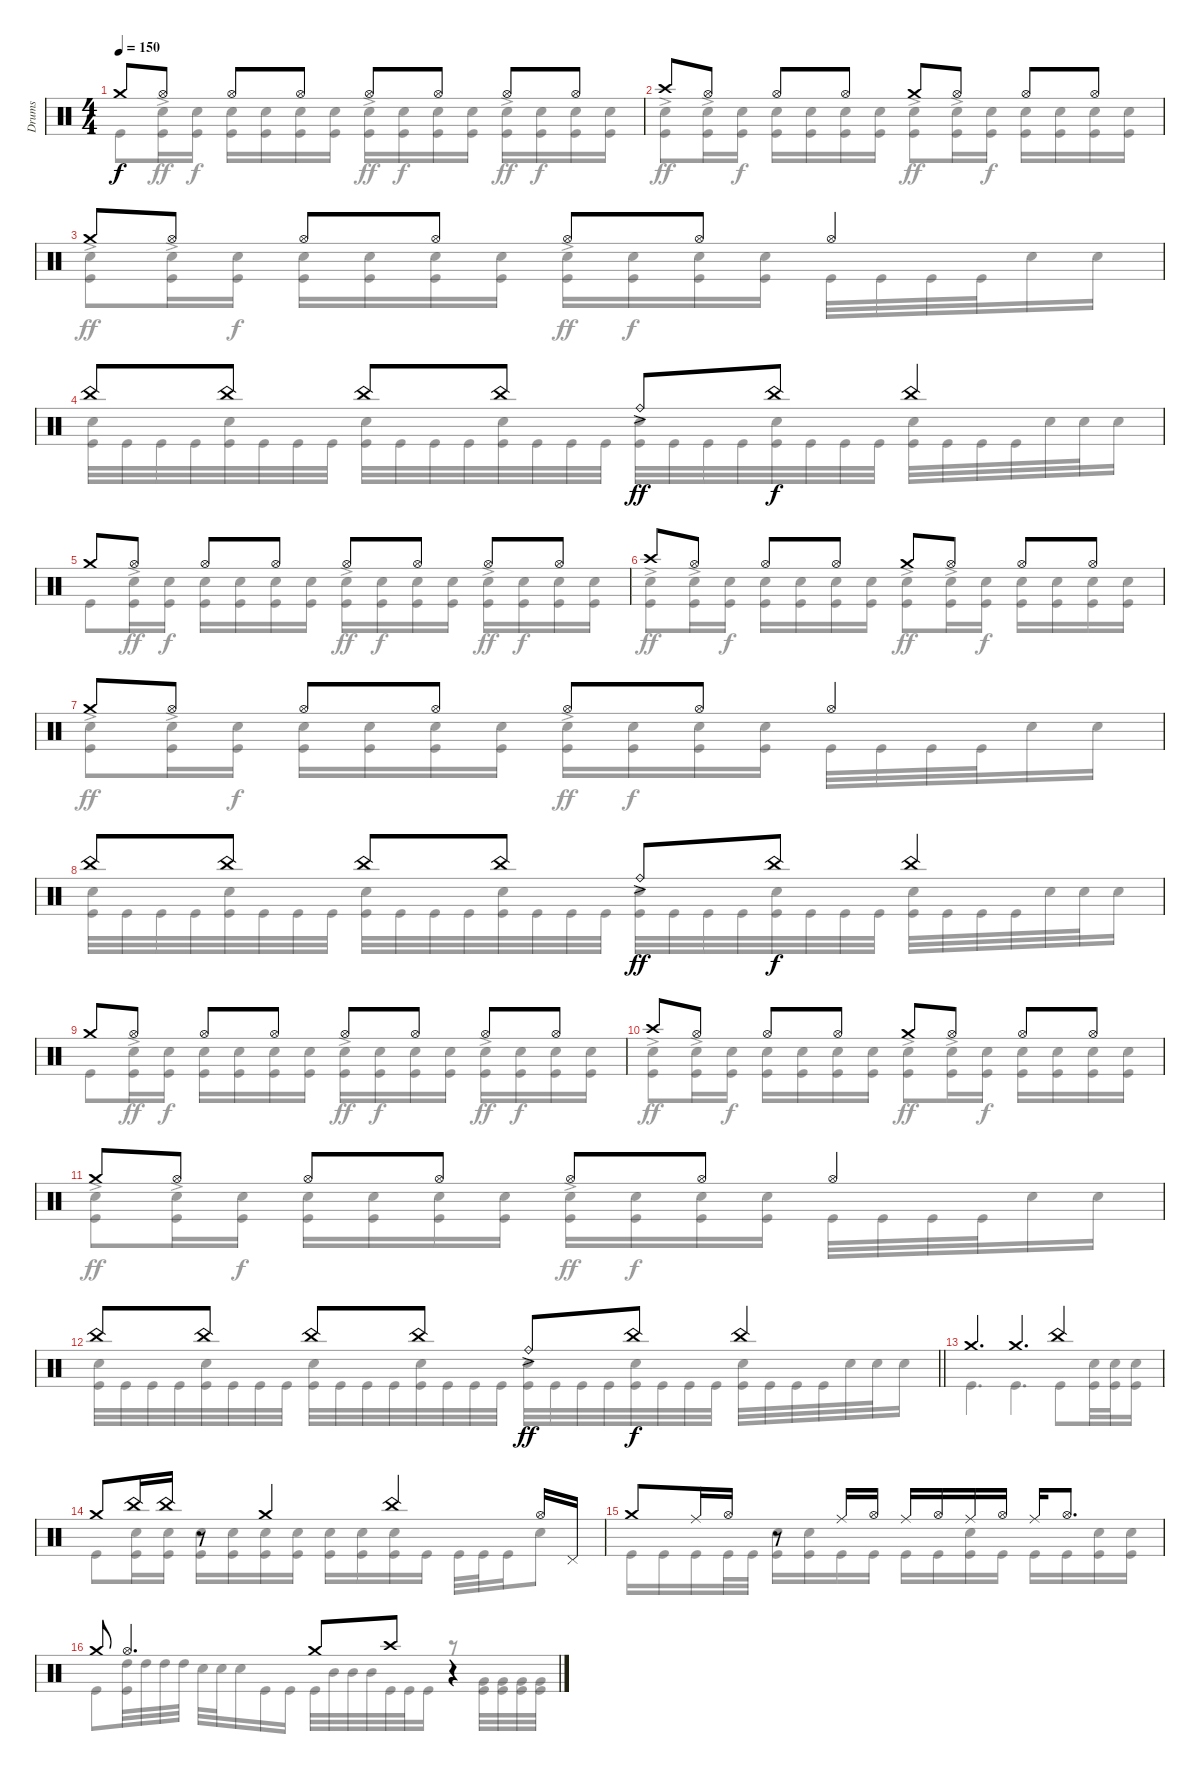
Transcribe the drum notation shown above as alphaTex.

\track ("Drums" "Drums") {instrument percussion}
\staff {score}
\articulation defaults
\voice
\ts (4 4)
\tempo 150
\clef neutral
\ks c "Crash medium (hit)".8{dy f} "Hi-Hat (open)".8 "Hi-Hat (open)".8 "Hi-Hat (open)".8 "Hi-Hat (open)".8 "Hi-Hat (open)".8 "Hi-Hat (open)".8 "Hi-Hat (open)".8
|
"Crash high (hit)".8 "Hi-Hat (open)".8 "Hi-Hat (open)".8 "Hi-Hat (open)".8 "Crash medium (hit)".8 "Hi-Hat (open)".8 "Hi-Hat (open)".8 "Hi-Hat (open)".8 |
"Crash medium (hit)".8 "Hi-Hat (open)".8 "Hi-Hat (open)".8 "Hi-Hat (open)".8 "Hi-Hat (open)".8 "Hi-Hat (open)".8 "Hi-Hat (open)".4 |
"China (hit)".8 "China (hit)".8 "China (hit)".8 "China (hit)".8 "Ride (bell)"{ac}.8{dy ff} "China (hit)".8{dy f} "China (hit)".4 |
"Crash medium (hit)".8 "Hi-Hat (open)".8 "Hi-Hat (open)".8 "Hi-Hat (open)".8 "Hi-Hat (open)".8 "Hi-Hat (open)".8 "Hi-Hat (open)".8 "Hi-Hat (open)".8 |
"Crash high (hit)".8 "Hi-Hat (open)".8 "Hi-Hat (open)".8 "Hi-Hat (open)".8 "Crash medium (hit)".8 "Hi-Hat (open)".8 "Hi-Hat (open)".8 "Hi-Hat (open)".8 |
"Crash medium (hit)".8 "Hi-Hat (open)".8 "Hi-Hat (open)".8 "Hi-Hat (open)".8 "Hi-Hat (open)".8 "Hi-Hat (open)".8 "Hi-Hat (open)".4 |
"China (hit)".8 "China (hit)".8 "China (hit)".8 "China (hit)".8 "Ride (bell)"{ac}.8{dy ff} "China (hit)".8{dy f} "China (hit)".4 |
"Crash medium (hit)".8 "Hi-Hat (open)".8 "Hi-Hat (open)".8 "Hi-Hat (open)".8 "Hi-Hat (open)".8 "Hi-Hat (open)".8 "Hi-Hat (open)".8 "Hi-Hat (open)".8 |
"Crash high (hit)".8 "Hi-Hat (open)".8 "Hi-Hat (open)".8 "Hi-Hat (open)".8 "Crash medium (hit)".8 "Hi-Hat (open)".8 "Hi-Hat (open)".8 "Hi-Hat (open)".8 |
"Crash medium (hit)".8 "Hi-Hat (open)".8 "Hi-Hat (open)".8 "Hi-Hat (open)".8 "Hi-Hat (open)".8 "Hi-Hat (open)".8 "Hi-Hat (open)".4 |
\barLineRight lightlight "China (hit)".8 "China (hit)".8 "China (hit)".8 "China (hit)".8 "Ride (bell)"{ac}.8{dy ff} "China (hit)".8{dy f} "China (hit)".4
|
\section ("" "")
"Crash medium (hit)".4{d} "Crash medium (hit)".4{d} "China (hit)".4 |
"Crash medium (hit)".8 "China (hit)".16 "China (hit)".16 r.8 "Crash medium (hit)".4 "China (hit)".4 "Hi-Hat (open)".16 "Pedal Hi-Hat (hit)".16 |
"Crash medium (hit)".8 "Ride (middle)".16 "Hi-Hat (open)".16 r.8 "Ride (middle)".16 "Hi-Hat (open)".16 "Ride (middle)".16 "Hi-Hat (open)".16 "Ride (middle)".16 "Hi-Hat (open)".16 "Ride (middle)".16 "Hi-Hat (open)".8{d} |
"Crash medium (hit)".8 "Hi-Hat (open)".4{d} "Crash medium (hit)".8 "Crash high (hit)".8 r.4
\voice
\clef neutral
\ottava regular
\simile none
\ks c "Kick (hit)".8{dy f}
("Snare (hit) 2"{ac} "Kick (hit)").16{dy ff} ("Snare (hit) 2" "Kick (hit)").16{dy f} ("Snare (hit) 2" "Kick (hit)").16 ("Snare (hit) 2" "Kick (hit)").16 ("Snare (hit) 2" "Kick (hit)").16 ("Snare (hit) 2" "Kick (hit)").16 ("Snare (hit) 2"{ac} "Kick (hit)").16{dy ff} ("Snare (hit) 2" "Kick (hit)").16{dy f} ("Snare (hit) 2" "Kick (hit)").16 ("Snare (hit) 2" "Kick (hit)").16 ("Snare (hit) 2"{ac} "Kick (hit)").16{dy ff} ("Snare (hit) 2" "Kick (hit)").16{dy f} ("Snare (hit) 2" "Kick (hit)").16 ("Snare (hit) 2" "Kick (hit)").16 |
("Snare (hit) 2"{ac} "Kick (hit)").8{dy ff} ("Snare (hit) 2"{ac} "Kick (hit)").16 ("Snare (hit) 2" "Kick (hit)").16{dy f} ("Snare (hit) 2" "Kick (hit)").16 ("Snare (hit) 2" "Kick (hit)").16 ("Snare (hit) 2" "Kick (hit)").16 ("Snare (hit) 2" "Kick (hit)").16 ("Snare (hit) 2"{ac} "Kick (hit)").8{dy ff} ("Snare (hit) 2"{ac} "Kick (hit)").16 ("Snare (hit) 2" "Kick (hit)").16{dy f} ("Snare (hit) 2" "Kick (hit)").16 ("Snare (hit) 2" "Kick (hit)").16 ("Snare (hit) 2" "Kick (hit)").16 ("Snare (hit) 2" "Kick (hit)").16 |
("Snare (hit) 2"{ac} "Kick (hit)").8{dy ff} ("Snare (hit) 2"{ac} "Kick (hit)").16 ("Snare (hit) 2" "Kick (hit)").16{dy f} ("Snare (hit) 2" "Kick (hit)").16 ("Snare (hit) 2" "Kick (hit)").16 ("Snare (hit) 2" "Kick (hit)").16 ("Snare (hit) 2" "Kick (hit)").16 ("Snare (hit) 2"{ac} "Kick (hit)").16{dy ff} ("Snare (hit) 2" "Kick (hit)").16{dy f} ("Snare (hit) 2" "Kick (hit)").16 ("Snare (hit) 2" "Kick (hit)").16 "Kick (hit)".32 "Kick (hit)".32 "Kick (hit)".32 "Kick (hit)".32 "Snare (hit) 2".16 "Snare (hit) 2".16 |
("Snare (hit) 2" "Kick (hit)").32 "Kick (hit)".32 "Kick (hit)".32 "Kick (hit)".32 ("Snare (hit) 2" "Kick (hit)").32 "Kick (hit)".32 "Kick (hit)".32 "Kick (hit)".32 ("Snare (hit) 2" "Kick (hit)").32 "Kick (hit)".32 "Kick (hit)".32 "Kick (hit)".32 ("Snare (hit) 2" "Kick (hit)").32 "Kick (hit)".32 "Kick (hit)".32 "Kick (hit)".32 ("Snare (hit) 2" "Kick (hit)").32 "Kick (hit)".32 "Kick (hit)".32 "Kick (hit)".32 ("Snare (hit) 2" "Kick (hit)").32 "Kick (hit)".32 "Kick (hit)".32 "Kick (hit)".32 ("Snare (hit) 2" "Kick (hit)").32 "Kick (hit)".32 "Kick (hit)".32 "Kick (hit)".32 "Snare (hit) 2".32 "Snare (hit) 2".32 "Snare (hit) 2".16 |
"Kick (hit)".8 ("Snare (hit) 2"{ac} "Kick (hit)").16{dy ff} ("Snare (hit) 2" "Kick (hit)").16{dy f} ("Snare (hit) 2" "Kick (hit)").16 ("Snare (hit) 2" "Kick (hit)").16 ("Snare (hit) 2" "Kick (hit)").16 ("Snare (hit) 2" "Kick (hit)").16 ("Snare (hit) 2"{ac} "Kick (hit)").16{dy ff} ("Snare (hit) 2" "Kick (hit)").16{dy f} ("Snare (hit) 2" "Kick (hit)").16 ("Snare (hit) 2" "Kick (hit)").16 ("Snare (hit) 2"{ac} "Kick (hit)").16{dy ff} ("Snare (hit) 2" "Kick (hit)").16{dy f} ("Snare (hit) 2" "Kick (hit)").16 ("Snare (hit) 2" "Kick (hit)").16 |
("Snare (hit) 2"{ac} "Kick (hit)").8{dy ff} ("Snare (hit) 2"{ac} "Kick (hit)").16 ("Snare (hit) 2" "Kick (hit)").16{dy f} ("Snare (hit) 2" "Kick (hit)").16 ("Snare (hit) 2" "Kick (hit)").16 ("Snare (hit) 2" "Kick (hit)").16 ("Snare (hit) 2" "Kick (hit)").16 ("Snare (hit) 2"{ac} "Kick (hit)").8{dy ff} ("Snare (hit) 2"{ac} "Kick (hit)").16 ("Snare (hit) 2" "Kick (hit)").16{dy f} ("Snare (hit) 2" "Kick (hit)").16 ("Snare (hit) 2" "Kick (hit)").16 ("Snare (hit) 2" "Kick (hit)").16 ("Snare (hit) 2" "Kick (hit)").16 |
("Snare (hit) 2"{ac} "Kick (hit)").8{dy ff} ("Snare (hit) 2"{ac} "Kick (hit)").16 ("Snare (hit) 2" "Kick (hit)").16{dy f} ("Snare (hit) 2" "Kick (hit)").16 ("Snare (hit) 2" "Kick (hit)").16 ("Snare (hit) 2" "Kick (hit)").16 ("Snare (hit) 2" "Kick (hit)").16 ("Snare (hit) 2"{ac} "Kick (hit)").16{dy ff} ("Snare (hit) 2" "Kick (hit)").16{dy f} ("Snare (hit) 2" "Kick (hit)").16 ("Snare (hit) 2" "Kick (hit)").16 "Kick (hit)".32 "Kick (hit)".32 "Kick (hit)".32 "Kick (hit)".32 "Snare (hit) 2".16 "Snare (hit) 2".16 |
("Snare (hit) 2" "Kick (hit)").32 "Kick (hit)".32 "Kick (hit)".32 "Kick (hit)".32 ("Snare (hit) 2" "Kick (hit)").32 "Kick (hit)".32 "Kick (hit)".32 "Kick (hit)".32 ("Snare (hit) 2" "Kick (hit)").32 "Kick (hit)".32 "Kick (hit)".32 "Kick (hit)".32 ("Snare (hit) 2" "Kick (hit)").32 "Kick (hit)".32 "Kick (hit)".32 "Kick (hit)".32 ("Snare (hit) 2" "Kick (hit)").32 "Kick (hit)".32 "Kick (hit)".32 "Kick (hit)".32 ("Snare (hit) 2" "Kick (hit)").32 "Kick (hit)".32 "Kick (hit)".32 "Kick (hit)".32 ("Snare (hit) 2" "Kick (hit)").32 "Kick (hit)".32 "Kick (hit)".32 "Kick (hit)".32 "Snare (hit) 2".32 "Snare (hit) 2".32 "Snare (hit) 2".16 |
"Kick (hit)".8 ("Snare (hit) 2"{ac} "Kick (hit)").16{dy ff} ("Snare (hit) 2" "Kick (hit)").16{dy f} ("Snare (hit) 2" "Kick (hit)").16 ("Snare (hit) 2" "Kick (hit)").16 ("Snare (hit) 2" "Kick (hit)").16 ("Snare (hit) 2" "Kick (hit)").16 ("Snare (hit) 2"{ac} "Kick (hit)").16{dy ff} ("Snare (hit) 2" "Kick (hit)").16{dy f} ("Snare (hit) 2" "Kick (hit)").16 ("Snare (hit) 2" "Kick (hit)").16 ("Snare (hit) 2"{ac} "Kick (hit)").16{dy ff} ("Snare (hit) 2" "Kick (hit)").16{dy f} ("Snare (hit) 2" "Kick (hit)").16 ("Snare (hit) 2" "Kick (hit)").16 |
("Snare (hit) 2"{ac} "Kick (hit)").8{dy ff} ("Snare (hit) 2"{ac} "Kick (hit)").16 ("Snare (hit) 2" "Kick (hit)").16{dy f} ("Snare (hit) 2" "Kick (hit)").16 ("Snare (hit) 2" "Kick (hit)").16 ("Snare (hit) 2" "Kick (hit)").16 ("Snare (hit) 2" "Kick (hit)").16 ("Snare (hit) 2"{ac} "Kick (hit)").8{dy ff} ("Snare (hit) 2"{ac} "Kick (hit)").16 ("Snare (hit) 2" "Kick (hit)").16{dy f} ("Snare (hit) 2" "Kick (hit)").16 ("Snare (hit) 2" "Kick (hit)").16 ("Snare (hit) 2" "Kick (hit)").16 ("Snare (hit) 2" "Kick (hit)").16 |
("Snare (hit) 2"{ac} "Kick (hit)").8{dy ff} ("Snare (hit) 2"{ac} "Kick (hit)").16 ("Snare (hit) 2" "Kick (hit)").16{dy f} ("Snare (hit) 2" "Kick (hit)").16 ("Snare (hit) 2" "Kick (hit)").16 ("Snare (hit) 2" "Kick (hit)").16 ("Snare (hit) 2" "Kick (hit)").16 ("Snare (hit) 2"{ac} "Kick (hit)").16{dy ff} ("Snare (hit) 2" "Kick (hit)").16{dy f} ("Snare (hit) 2" "Kick (hit)").16 ("Snare (hit) 2" "Kick (hit)").16 "Kick (hit)".32 "Kick (hit)".32 "Kick (hit)".32 "Kick (hit)".32 "Snare (hit) 2".16 "Snare (hit) 2".16 |
\barLineRight lightlight
("Snare (hit) 2" "Kick (hit)").32 "Kick (hit)".32 "Kick (hit)".32 "Kick (hit)".32 ("Snare (hit) 2" "Kick (hit)").32 "Kick (hit)".32 "Kick (hit)".32 "Kick (hit)".32 ("Snare (hit) 2" "Kick (hit)").32 "Kick (hit)".32 "Kick (hit)".32 "Kick (hit)".32 ("Snare (hit) 2" "Kick (hit)").32 "Kick (hit)".32 "Kick (hit)".32 "Kick (hit)".32 ("Snare (hit) 2" "Kick (hit)").32 "Kick (hit)".32 "Kick (hit)".32 "Kick (hit)".32 ("Snare (hit) 2" "Kick (hit)").32 "Kick (hit)".32 "Kick (hit)".32 "Kick (hit)".32 ("Snare (hit) 2" "Kick (hit)").32 "Kick (hit)".32 "Kick (hit)".32 "Kick (hit)".32 "Snare (hit) 2".32 "Snare (hit) 2".32 "Snare (hit) 2".16 |
"Kick (hit)".4{d} "Kick (hit)".4{d} "Kick (hit)".8 ("Snare (hit) 2" "Kick (hit)").32 ("Snare (hit) 2" "Kick (hit)").32 ("Snare (hit) 2" "Kick (hit)").16 |
"Kick (hit)".8 ("Snare (hit) 2" "Kick (hit)").16 ("Snare (hit) 2" "Kick (hit)").16 ("Snare (hit) 2" "Kick (hit)").16 ("Snare (hit) 2" "Kick (hit)").16 ("Snare (hit) 2" "Kick (hit)").16 ("Snare (hit) 2" "Kick (hit)").16 ("Snare (hit) 2" "Kick (hit)").16 ("Snare (hit) 2" "Kick (hit)").16 ("Snare (hit) 2" "Kick (hit)").16 "Kick (hit)".16 "Kick (hit)".32 "Kick (hit)".32 "Kick (hit)".16 "Snare (hit) 2".8 |
"Kick (hit)".16 "Kick (hit)".16 "Kick (hit)".16 "Kick (hit)".32 "Kick (hit)".32 ("Snare (hit) 2" "Kick (hit)").16 ("Snare (hit) 2" "Kick (hit)").16 "Kick (hit)".16 "Kick (hit)".16 "Kick (hit)".16 "Kick (hit)".16 ("Snare (hit) 2" "Kick (hit)").16 "Kick (hit)".16 "Kick (hit)".16 "Kick (hit)".16 ("Snare (hit) 2" "Kick (hit)").16 ("Snare (hit) 2" "Kick (hit)").16 |
"Kick (hit)".8 ("High Tom (hit)" "Kick (hit)").32 "High Tom (hit)".32 "High Tom (hit)".32 "High Tom (hit)".32 "Snare (hit) 2".32 "Snare (hit) 2".32 "Snare (hit) 2".16 "Kick (hit)".16 "Kick (hit)".16 "Kick (hit)".32 "Mid Tom (hit)".32 "Mid Tom (hit)".32 "Mid Tom (hit)".32 "Kick (hit)".32 "Kick (hit)".32 "Kick (hit)".16 r.8 ("Very Low Tom (hit)" "Kick (hit)").32 ("Very Low Tom (hit)" "Kick (hit)").32 ("Very Low Tom (hit)" "Kick (hit)").32 ("Very Low Tom (hit)" "Kick (hit)").32
